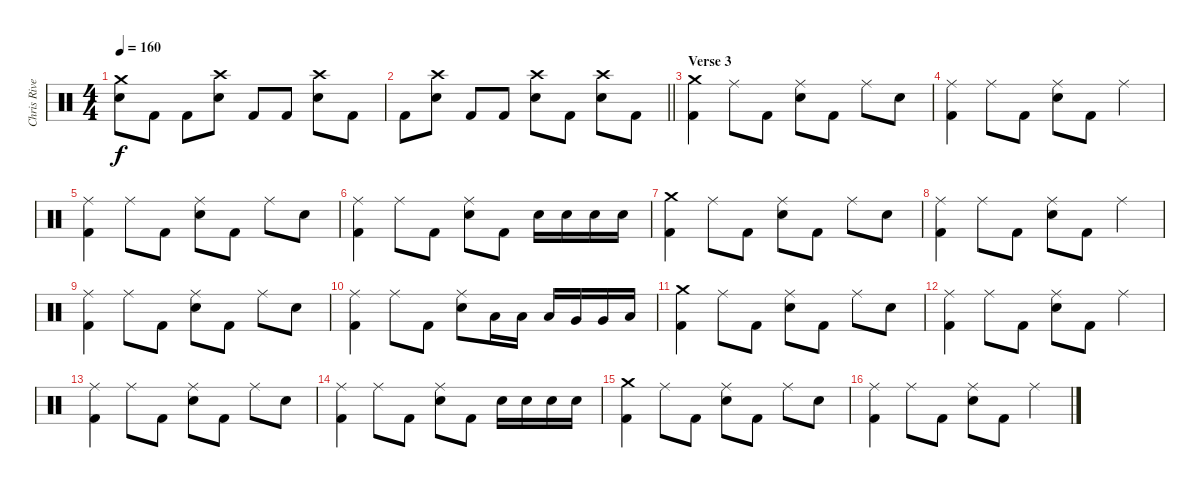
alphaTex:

\track ("Chris Rivers" "Chris Rive") {instrument percussion}
\staff {score}
\articulation defaults
\ts (4 4)
\tempo 160
\clef neutral
\ks c
("Crash medium (hit)" "Electric Snare (hit)").8{dy f} "Kick (hit) 2".8 "Kick (hit) 2".8 ("Crash high (hit)" "Electric Snare (hit)").8 "Kick (hit) 2".8 "Kick (hit) 2".8 ("Crash high (hit)" "Electric Snare (hit)").8 "Kick (hit) 2".8 |
\barLineRight lightlight "Kick (hit) 2".8
("Crash high (hit)" "Electric Snare (hit)").8 "Kick (hit) 2".8 "Kick (hit) 2".8 ("Crash high (hit)" "Electric Snare (hit)").8 "Kick (hit) 2".8 ("Crash high (hit)" "Electric Snare (hit)").8 "Kick (hit) 2".8 |
\section ("" "Verse 3")
("Crash medium (hit)" "Kick (hit) 2").4 "Ride (middle)".8 "Kick (hit) 2".8 ("Ride (middle)" "Electric Snare (hit)").8 "Kick (hit) 2".8 "Ride (middle)".8 "Electric Snare (hit)".8 |
("Ride (middle)" "Kick (hit) 2").4 "Ride (middle)".8 "Kick (hit) 2".8 ("Ride (middle)" "Electric Snare (hit)").8 "Kick (hit) 2".8 "Ride (middle)".4 |
("Ride (middle)" "Kick (hit) 2").4 "Ride (middle)".8 "Kick (hit) 2".8 ("Ride (middle)" "Electric Snare (hit)").8 "Kick (hit) 2".8 "Ride (middle)".8 "Electric Snare (hit)".8 |
("Ride (middle)" "Kick (hit) 2").4 "Ride (middle)".8 "Kick (hit) 2".8 ("Ride (middle)" "Electric Snare (hit)").8 "Kick (hit) 2".8 "Electric Snare (hit)".16 "Electric Snare (hit)".16 "Electric Snare (hit)".16 "Electric Snare (hit)".16 |
("Crash medium (hit)" "Kick (hit) 2").4 "Ride (middle)".8 "Kick (hit) 2".8 ("Ride (middle)" "Electric Snare (hit)").8 "Kick (hit) 2".8 "Ride (middle)".8 "Electric Snare (hit)".8 |
("Ride (middle)" "Kick (hit) 2").4 "Ride (middle)".8 "Kick (hit) 2".8 ("Ride (middle)" "Electric Snare (hit)").8 "Kick (hit) 2".8 "Ride (middle)".4 |
("Ride (middle)" "Kick (hit) 2").4 "Ride (middle)".8 "Kick (hit) 2".8 ("Ride (middle)" "Electric Snare (hit)").8 "Kick (hit) 2".8 "Ride (middle)".8 "Electric Snare (hit)".8 |
("Ride (middle)" "Kick (hit) 2").4 "Ride (middle)".8 "Kick (hit) 2".8 ("Ride (middle)" "Electric Snare (hit)").8 "Low Tom (hit)".16 "Low Tom (hit)".16 "Low Tom (hit)".16 "Very Low Tom (hit)".16 "Very Low Tom (hit)".16 "Low Floor Tom (hit)".16 |
("Crash medium (hit)" "Kick (hit) 2").4 "Ride (middle)".8 "Kick (hit) 2".8 ("Ride (middle)" "Electric Snare (hit)").8 "Kick (hit) 2".8 "Ride (middle)".8 "Electric Snare (hit)".8 |
("Ride (middle)" "Kick (hit) 2").4 "Ride (middle)".8 "Kick (hit) 2".8 ("Ride (middle)" "Electric Snare (hit)").8 "Kick (hit) 2".8 "Ride (middle)".4 |
("Ride (middle)" "Kick (hit) 2").4 "Ride (middle)".8 "Kick (hit) 2".8 ("Ride (middle)" "Electric Snare (hit)").8 "Kick (hit) 2".8 "Ride (middle)".8 "Electric Snare (hit)".8 |
("Ride (middle)" "Kick (hit) 2").4 "Ride (middle)".8 "Kick (hit) 2".8 ("Ride (middle)" "Electric Snare (hit)").8 "Kick (hit) 2".8 "Electric Snare (hit)".16 "Electric Snare (hit)".16 "Electric Snare (hit)".16 "Electric Snare (hit)".16 |
("Crash medium (hit)" "Kick (hit) 2").4 "Ride (middle)".8 "Kick (hit) 2".8 ("Ride (middle)" "Electric Snare (hit)").8 "Kick (hit) 2".8 "Ride (middle)".8 "Electric Snare (hit)".8 |
("Ride (middle)" "Kick (hit) 2").4 "Ride (middle)".8 "Kick (hit) 2".8 ("Ride (middle)" "Electric Snare (hit)").8 "Kick (hit) 2".8 "Ride (middle)".4
